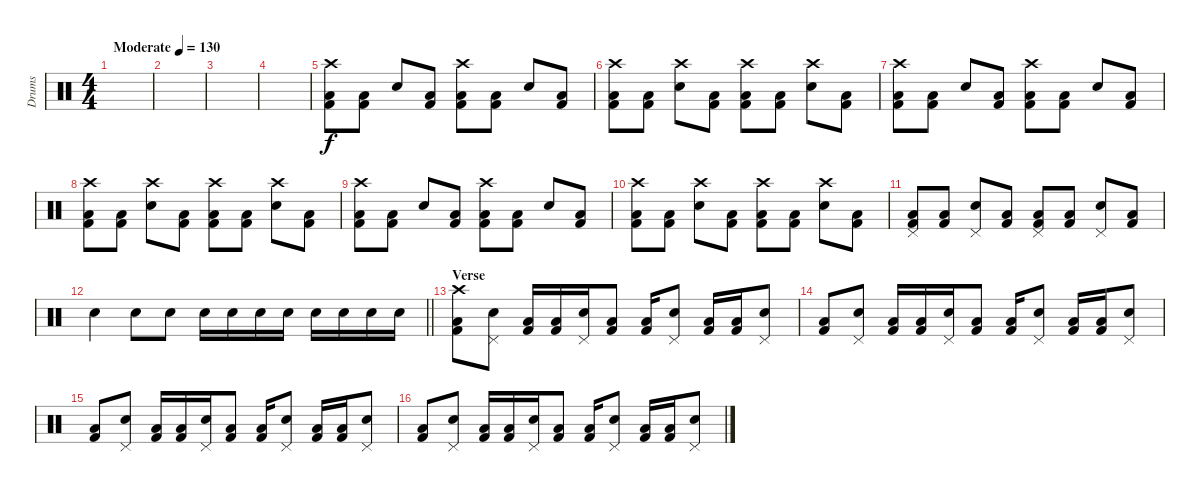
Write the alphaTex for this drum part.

\track ("Drums" "Drums") {instrument percussion}
\staff {score}
\articulation defaults
\ts (4 4)
\tempo (130 "Moderate")
\clef neutral
\ks c
|
|
|
|
("Kick (hit) 2" "Low Floor Tom (hit)" "Crash high (hit)").8 ("Kick (hit) 2" "Low Floor Tom (hit)").8 "Electric Snare (hit)".8 ("Kick (hit) 2" "Low Floor Tom (hit)").8 ("Kick (hit) 2" "Low Floor Tom (hit)" "Crash high (hit)").8 ("Kick (hit) 2" "Low Floor Tom (hit)").8 "Electric Snare (hit)".8 ("Kick (hit) 2" "Low Floor Tom (hit)").8 |
("Kick (hit) 2" "Low Floor Tom (hit)" "Crash high (hit)").8 ("Kick (hit) 2" "Low Floor Tom (hit)").8 ("Electric Snare (hit)" "Crash high (hit)").8 ("Kick (hit) 2" "Low Floor Tom (hit)").8 ("Kick (hit) 2" "Low Floor Tom (hit)" "Crash high (hit)").8 ("Kick (hit) 2" "Low Floor Tom (hit)").8 ("Electric Snare (hit)" "Crash high (hit)").8 ("Kick (hit) 2" "Low Floor Tom (hit)").8 |
("Kick (hit) 2" "Low Floor Tom (hit)" "Crash high (hit)").8 ("Kick (hit) 2" "Low Floor Tom (hit)").8 "Electric Snare (hit)".8 ("Kick (hit) 2" "Low Floor Tom (hit)").8 ("Kick (hit) 2" "Low Floor Tom (hit)" "Crash high (hit)").8 ("Kick (hit) 2" "Low Floor Tom (hit)").8 "Electric Snare (hit)".8 ("Kick (hit) 2" "Low Floor Tom (hit)").8 |
("Kick (hit) 2" "Low Floor Tom (hit)" "Crash high (hit)").8 ("Kick (hit) 2" "Low Floor Tom (hit)").8 ("Electric Snare (hit)" "Crash high (hit)").8 ("Kick (hit) 2" "Low Floor Tom (hit)").8 ("Kick (hit) 2" "Low Floor Tom (hit)" "Crash high (hit)").8 ("Kick (hit) 2" "Low Floor Tom (hit)").8 ("Electric Snare (hit)" "Crash high (hit)").8 ("Kick (hit) 2" "Low Floor Tom (hit)").8 |
("Kick (hit) 2" "Low Floor Tom (hit)" "Crash high (hit)").8 ("Kick (hit) 2" "Low Floor Tom (hit)").8 "Electric Snare (hit)".8 ("Kick (hit) 2" "Low Floor Tom (hit)").8 ("Kick (hit) 2" "Low Floor Tom (hit)" "Crash high (hit)").8 ("Kick (hit) 2" "Low Floor Tom (hit)").8 "Electric Snare (hit)".8 ("Kick (hit) 2" "Low Floor Tom (hit)").8 |
("Kick (hit) 2" "Low Floor Tom (hit)" "Crash high (hit)").8 ("Kick (hit) 2" "Low Floor Tom (hit)").8 ("Electric Snare (hit)" "Crash high (hit)").8 ("Kick (hit) 2" "Low Floor Tom (hit)").8 ("Kick (hit) 2" "Low Floor Tom (hit)" "Crash high (hit)").8 ("Kick (hit) 2" "Low Floor Tom (hit)").8 ("Electric Snare (hit)" "Crash high (hit)").8 ("Kick (hit) 2" "Low Floor Tom (hit)").8 |
("Kick (hit) 2" "Low Floor Tom (hit)" "Pedal Hi-Hat (hit)").8 ("Kick (hit) 2" "Low Floor Tom (hit)").8 ("Electric Snare (hit)" "Pedal Hi-Hat (hit)").8 ("Kick (hit) 2" "Low Floor Tom (hit)").8 ("Kick (hit) 2" "Low Floor Tom (hit)" "Pedal Hi-Hat (hit)").8 ("Kick (hit) 2" "Low Floor Tom (hit)").8 ("Electric Snare (hit)" "Pedal Hi-Hat (hit)").8 ("Kick (hit) 2" "Low Floor Tom (hit)").8 |
\barLineRight lightlight "Electric Snare (hit)".4 "Electric Snare (hit)".8 "Electric Snare (hit)".8 "Electric Snare (hit)".16 "Electric Snare (hit)".16 "Electric Snare (hit)".16 "Electric Snare (hit)".16 "Electric Snare (hit)".16 "Electric Snare (hit)".16 "Electric Snare (hit)".16 "Electric Snare (hit)".16
|
\section ("" "Verse")
("Kick (hit) 2" "Low Floor Tom (hit)" "Crash high (hit)").8 ("Electric Snare (hit)" "Pedal Hi-Hat (hit)").8 ("Kick (hit) 2" "Low Floor Tom (hit)").16 ("Kick (hit) 2" "Low Floor Tom (hit)").16 ("Electric Snare (hit)" "Pedal Hi-Hat (hit)").16 ("Kick (hit) 2" "Low Floor Tom (hit)").8 ("Kick (hit) 2" "Low Floor Tom (hit)").16 ("Electric Snare (hit)" "Pedal Hi-Hat (hit)").8 ("Kick (hit) 2" "Low Floor Tom (hit)").16 ("Kick (hit) 2" "Low Floor Tom (hit)").16 ("Electric Snare (hit)" "Pedal Hi-Hat (hit)").8 |
("Kick (hit) 2" "Low Floor Tom (hit)").8 ("Electric Snare (hit)" "Pedal Hi-Hat (hit)").8 ("Kick (hit) 2" "Low Floor Tom (hit)").16 ("Kick (hit) 2" "Low Floor Tom (hit)").16 ("Electric Snare (hit)" "Pedal Hi-Hat (hit)").16 ("Kick (hit) 2" "Low Floor Tom (hit)").8 ("Kick (hit) 2" "Low Floor Tom (hit)").16 ("Electric Snare (hit)" "Pedal Hi-Hat (hit)").8 ("Kick (hit) 2" "Low Floor Tom (hit)").16 ("Kick (hit) 2" "Low Floor Tom (hit)").16 ("Electric Snare (hit)" "Pedal Hi-Hat (hit)").8 |
("Kick (hit) 2" "Low Floor Tom (hit)").8 ("Electric Snare (hit)" "Pedal Hi-Hat (hit)").8 ("Kick (hit) 2" "Low Floor Tom (hit)").16 ("Kick (hit) 2" "Low Floor Tom (hit)").16 ("Electric Snare (hit)" "Pedal Hi-Hat (hit)").16 ("Kick (hit) 2" "Low Floor Tom (hit)").8 ("Kick (hit) 2" "Low Floor Tom (hit)").16 ("Electric Snare (hit)" "Pedal Hi-Hat (hit)").8 ("Kick (hit) 2" "Low Floor Tom (hit)").16 ("Kick (hit) 2" "Low Floor Tom (hit)").16 ("Electric Snare (hit)" "Pedal Hi-Hat (hit)").8 |
("Kick (hit) 2" "Low Floor Tom (hit)").8 ("Electric Snare (hit)" "Pedal Hi-Hat (hit)").8 ("Kick (hit) 2" "Low Floor Tom (hit)").16 ("Kick (hit) 2" "Low Floor Tom (hit)").16 ("Electric Snare (hit)" "Pedal Hi-Hat (hit)").16 ("Kick (hit) 2" "Low Floor Tom (hit)").8 ("Kick (hit) 2" "Low Floor Tom (hit)").16 ("Electric Snare (hit)" "Pedal Hi-Hat (hit)").8 ("Kick (hit) 2" "Low Floor Tom (hit)").16 ("Kick (hit) 2" "Low Floor Tom (hit)").16 ("Electric Snare (hit)" "Pedal Hi-Hat (hit)").8
